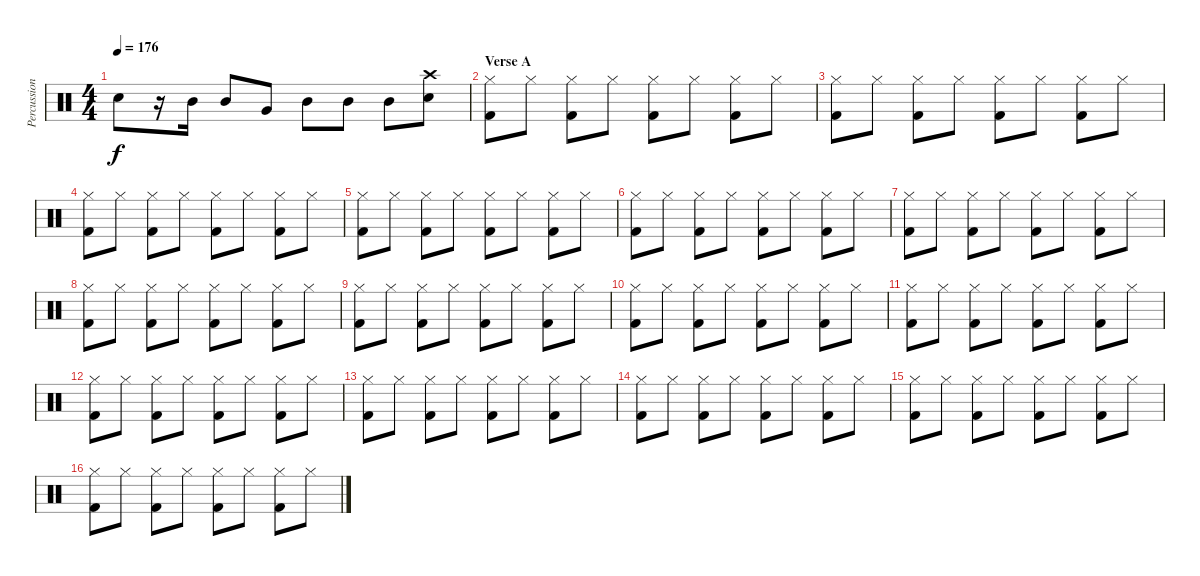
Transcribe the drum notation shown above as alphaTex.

\track ("Percussion" "Percussion") {instrument percussion}
\staff {score}
\articulation defaults
\ts (4 4)
\tempo 176
\clef neutral
\ks c "Snare (hit) 2".8{dy f}
r.16 "Mid Tom (hit)".16 "Mid Tom (hit)".8 "Very Low Tom (hit)".8 "Mid Tom (hit)".8 "Mid Tom (hit)".8 "Mid Tom (hit)".8 ("Crash high (hit)" "Snare (hit) 2").8 |
\section ("" "Verse A")
("Hi-Hat (closed)" "Kick (hit) 2").8 "Hi-Hat (closed)".8 ("Hi-Hat (closed)" "Kick (hit) 2").8 "Hi-Hat (closed)".8 ("Hi-Hat (closed)" "Kick (hit) 2").8 "Hi-Hat (closed)".8 ("Hi-Hat (closed)" "Kick (hit) 2").8 "Hi-Hat (closed)".8 |
("Hi-Hat (closed)" "Kick (hit) 2").8 "Hi-Hat (closed)".8 ("Hi-Hat (closed)" "Kick (hit) 2").8 "Hi-Hat (closed)".8 ("Hi-Hat (closed)" "Kick (hit) 2").8 "Hi-Hat (closed)".8 ("Hi-Hat (closed)" "Kick (hit) 2").8 "Hi-Hat (closed)".8 |
("Hi-Hat (closed)" "Kick (hit) 2").8 "Hi-Hat (closed)".8 ("Hi-Hat (closed)" "Kick (hit) 2").8 "Hi-Hat (closed)".8 ("Hi-Hat (closed)" "Kick (hit) 2").8 "Hi-Hat (closed)".8 ("Hi-Hat (closed)" "Kick (hit) 2").8 "Hi-Hat (closed)".8 |
("Hi-Hat (closed)" "Kick (hit) 2").8 "Hi-Hat (closed)".8 ("Hi-Hat (closed)" "Kick (hit) 2").8 "Hi-Hat (closed)".8 ("Hi-Hat (closed)" "Kick (hit) 2").8 "Hi-Hat (closed)".8 ("Hi-Hat (closed)" "Kick (hit) 2").8 "Hi-Hat (closed)".8 |
("Hi-Hat (closed)" "Kick (hit) 2").8 "Hi-Hat (closed)".8 ("Hi-Hat (closed)" "Kick (hit) 2").8 "Hi-Hat (closed)".8 ("Hi-Hat (closed)" "Kick (hit) 2").8 "Hi-Hat (closed)".8 ("Hi-Hat (closed)" "Kick (hit) 2").8 "Hi-Hat (closed)".8 |
("Hi-Hat (closed)" "Kick (hit) 2").8 "Hi-Hat (closed)".8 ("Hi-Hat (closed)" "Kick (hit) 2").8 "Hi-Hat (closed)".8 ("Hi-Hat (closed)" "Kick (hit) 2").8 "Hi-Hat (closed)".8 ("Hi-Hat (closed)" "Kick (hit) 2").8 "Hi-Hat (closed)".8 |
("Hi-Hat (closed)" "Kick (hit) 2").8 "Hi-Hat (closed)".8 ("Hi-Hat (closed)" "Kick (hit) 2").8 "Hi-Hat (closed)".8 ("Hi-Hat (closed)" "Kick (hit) 2").8 "Hi-Hat (closed)".8 ("Hi-Hat (closed)" "Kick (hit) 2").8 "Hi-Hat (closed)".8 |
("Hi-Hat (closed)" "Kick (hit) 2").8 "Hi-Hat (closed)".8 ("Hi-Hat (closed)" "Kick (hit) 2").8 "Hi-Hat (closed)".8 ("Hi-Hat (closed)" "Kick (hit) 2").8 "Hi-Hat (closed)".8 ("Hi-Hat (closed)" "Kick (hit) 2").8 "Hi-Hat (closed)".8 |
("Hi-Hat (closed)" "Kick (hit) 2").8 "Hi-Hat (closed)".8 ("Hi-Hat (closed)" "Kick (hit) 2").8 "Hi-Hat (closed)".8 ("Hi-Hat (closed)" "Kick (hit) 2").8 "Hi-Hat (closed)".8 ("Hi-Hat (closed)" "Kick (hit) 2").8 "Hi-Hat (closed)".8 |
("Hi-Hat (closed)" "Kick (hit) 2").8 "Hi-Hat (closed)".8 ("Hi-Hat (closed)" "Kick (hit) 2").8 "Hi-Hat (closed)".8 ("Hi-Hat (closed)" "Kick (hit) 2").8 "Hi-Hat (closed)".8 ("Hi-Hat (closed)" "Kick (hit) 2").8 "Hi-Hat (closed)".8 |
("Hi-Hat (closed)" "Kick (hit) 2").8 "Hi-Hat (closed)".8 ("Hi-Hat (closed)" "Kick (hit) 2").8 "Hi-Hat (closed)".8 ("Hi-Hat (closed)" "Kick (hit) 2").8 "Hi-Hat (closed)".8 ("Hi-Hat (closed)" "Kick (hit) 2").8 "Hi-Hat (closed)".8 |
("Hi-Hat (closed)" "Kick (hit) 2").8 "Hi-Hat (closed)".8 ("Hi-Hat (closed)" "Kick (hit) 2").8 "Hi-Hat (closed)".8 ("Hi-Hat (closed)" "Kick (hit) 2").8 "Hi-Hat (closed)".8 ("Hi-Hat (closed)" "Kick (hit) 2").8 "Hi-Hat (closed)".8 |
("Hi-Hat (closed)" "Kick (hit) 2").8 "Hi-Hat (closed)".8 ("Hi-Hat (closed)" "Kick (hit) 2").8 "Hi-Hat (closed)".8 ("Hi-Hat (closed)" "Kick (hit) 2").8 "Hi-Hat (closed)".8 ("Hi-Hat (closed)" "Kick (hit) 2").8 "Hi-Hat (closed)".8 |
("Hi-Hat (closed)" "Kick (hit) 2").8 "Hi-Hat (closed)".8 ("Hi-Hat (closed)" "Kick (hit) 2").8 "Hi-Hat (closed)".8 ("Hi-Hat (closed)" "Kick (hit) 2").8 "Hi-Hat (closed)".8 ("Hi-Hat (closed)" "Kick (hit) 2").8 "Hi-Hat (closed)".8 |
("Hi-Hat (closed)" "Kick (hit) 2").8 "Hi-Hat (closed)".8 ("Hi-Hat (closed)" "Kick (hit) 2").8 "Hi-Hat (closed)".8 ("Hi-Hat (closed)" "Kick (hit) 2").8 "Hi-Hat (closed)".8 ("Hi-Hat (closed)" "Kick (hit) 2").8 "Hi-Hat (closed)".8
